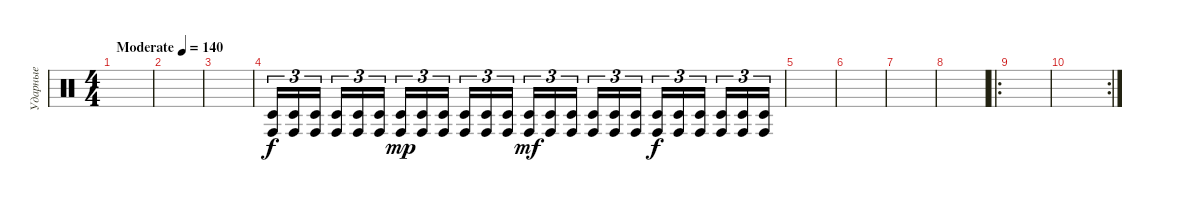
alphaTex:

\track ("Ударные" "Ударные") {instrument percussion}
\staff {score}
\articulation defaults
\ts (4 4)
\tempo (140 "Moderate")
\clef neutral
\ks c
|
|
|
("Conga high (hit)" "Timbale low (hit)").16{tu (3 2)} ("Conga high (hit)" "Timbale low (hit)").16{tu (3 2)} ("Conga high (hit)" "Timbale low (hit)").16{tu (3 2) beam splitsecondary} ("Conga high (hit)" "Timbale low (hit)").16{tu (3 2)} ("Conga high (hit)" "Timbale low (hit)").16{tu (3 2)} ("Conga high (hit)" "Timbale low (hit)").16{tu (3 2)} ("Conga high (hit)" "Timbale low (hit)").16{tu (3 2) dy mp} ("Conga high (hit)" "Timbale low (hit)").16{tu (3 2)} ("Conga high (hit)" "Timbale low (hit)").16{tu (3 2) beam splitsecondary} ("Conga high (hit)" "Timbale low (hit)").16{tu (3 2)} ("Conga high (hit)" "Timbale low (hit)").16{tu (3 2)} ("Conga high (hit)" "Timbale low (hit)").16{tu (3 2)} ("Conga high (hit)" "Timbale low (hit)").16{tu (3 2) dy mf} ("Conga high (hit)" "Timbale low (hit)").16{tu (3 2)} ("Conga high (hit)" "Timbale low (hit)").16{tu (3 2) beam splitsecondary} ("Conga high (hit)" "Timbale low (hit)").16{tu (3 2)} ("Conga high (hit)" "Timbale low (hit)").16{tu (3 2)} ("Conga high (hit)" "Timbale low (hit)").16{tu (3 2)} ("Conga high (hit)" "Timbale low (hit)").16{tu (3 2) dy f} ("Conga high (hit)" "Timbale low (hit)").16{tu (3 2)} ("Conga high (hit)" "Timbale low (hit)").16{tu (3 2) beam splitsecondary} ("Conga high (hit)" "Timbale low (hit)").16{tu (3 2)} ("Conga high (hit)" "Timbale low (hit)").16{tu (3 2)} ("Conga high (hit)" "Timbale low (hit)").16{tu (3 2)} |
|
|
|
|
\ro
|
\rc 2
